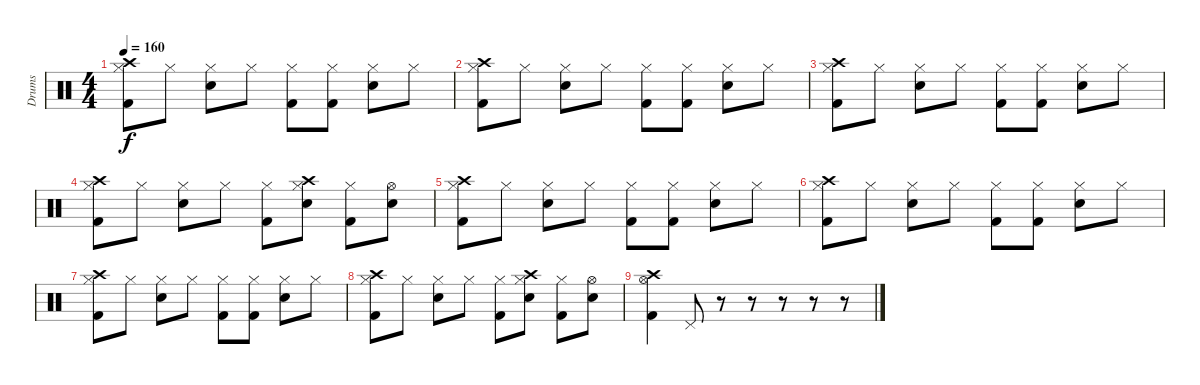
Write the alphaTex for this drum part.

\track ("Drums" "Drums") {instrument percussion}
\staff {score}
\articulation defaults
\ts (4 4)
\tempo 160
\clef neutral
\ks c
("Crash high (hit)" "Hi-Hat (closed)" "Kick (hit) 2").8{dy f} "Hi-Hat (closed)".8 ("Hi-Hat (closed)" "Snare (hit) 2").8 "Hi-Hat (closed)".8 ("Hi-Hat (closed)" "Kick (hit) 2").8 ("Hi-Hat (closed)" "Kick (hit) 2").8 ("Hi-Hat (closed)" "Snare (hit) 2").8 "Hi-Hat (closed)".8 |
("Crash high (hit)" "Hi-Hat (closed)" "Kick (hit) 2").8 "Hi-Hat (closed)".8 ("Hi-Hat (closed)" "Snare (hit) 2").8 "Hi-Hat (closed)".8 ("Hi-Hat (closed)" "Kick (hit) 2").8 ("Hi-Hat (closed)" "Kick (hit) 2").8 ("Hi-Hat (closed)" "Snare (hit) 2").8 "Hi-Hat (closed)".8 |
("Crash high (hit)" "Hi-Hat (closed)" "Kick (hit) 2").8 "Hi-Hat (closed)".8 ("Hi-Hat (closed)" "Snare (hit) 2").8 "Hi-Hat (closed)".8 ("Hi-Hat (closed)" "Kick (hit) 2").8 ("Hi-Hat (closed)" "Kick (hit) 2").8 ("Hi-Hat (closed)" "Snare (hit) 2").8 "Hi-Hat (closed)".8 |
("Crash high (hit)" "Hi-Hat (closed)" "Kick (hit) 2").8 "Hi-Hat (closed)".8 ("Hi-Hat (closed)" "Snare (hit) 2").8 "Hi-Hat (closed)".8 ("Hi-Hat (closed)" "Kick (hit) 2").8 ("Crash high (hit)" "Hi-Hat (closed)" "Snare (hit) 2").8 ("Hi-Hat (closed)" "Kick (hit) 2").8 ("Hi-Hat (open)" "Snare (hit) 2").8 |
("Crash high (hit)" "Hi-Hat (closed)" "Kick (hit) 2").8 "Hi-Hat (closed)".8 ("Hi-Hat (closed)" "Snare (hit) 2").8 "Hi-Hat (closed)".8 ("Hi-Hat (closed)" "Kick (hit) 2").8 ("Hi-Hat (closed)" "Kick (hit) 2").8 ("Hi-Hat (closed)" "Snare (hit) 2").8 "Hi-Hat (closed)".8 |
("Crash high (hit)" "Hi-Hat (closed)" "Kick (hit) 2").8 "Hi-Hat (closed)".8 ("Hi-Hat (closed)" "Snare (hit) 2").8 "Hi-Hat (closed)".8 ("Hi-Hat (closed)" "Kick (hit) 2").8 ("Hi-Hat (closed)" "Kick (hit) 2").8 ("Hi-Hat (closed)" "Snare (hit) 2").8 "Hi-Hat (closed)".8 |
("Crash high (hit)" "Hi-Hat (closed)" "Kick (hit) 2").8 "Hi-Hat (closed)".8 ("Hi-Hat (closed)" "Snare (hit) 2").8 "Hi-Hat (closed)".8 ("Hi-Hat (closed)" "Kick (hit) 2").8 ("Hi-Hat (closed)" "Kick (hit) 2").8 ("Hi-Hat (closed)" "Snare (hit) 2").8 "Hi-Hat (closed)".8 |
("Crash high (hit)" "Hi-Hat (closed)" "Kick (hit) 2").8 "Hi-Hat (closed)".8 ("Hi-Hat (closed)" "Snare (hit) 2").8 "Hi-Hat (closed)".8 ("Hi-Hat (closed)" "Kick (hit) 2").8 ("Crash high (hit)" "Hi-Hat (closed)" "Snare (hit) 2").8 ("Hi-Hat (closed)" "Kick (hit) 2").8 ("Hi-Hat (open)" "Snare (hit) 2").8 |
("Crash high (hit)" "Hi-Hat (open)" "Kick (hit) 2").4 "Pedal Hi-Hat (hit)".8 r.8 r.8 r.8 r.8 r.8
